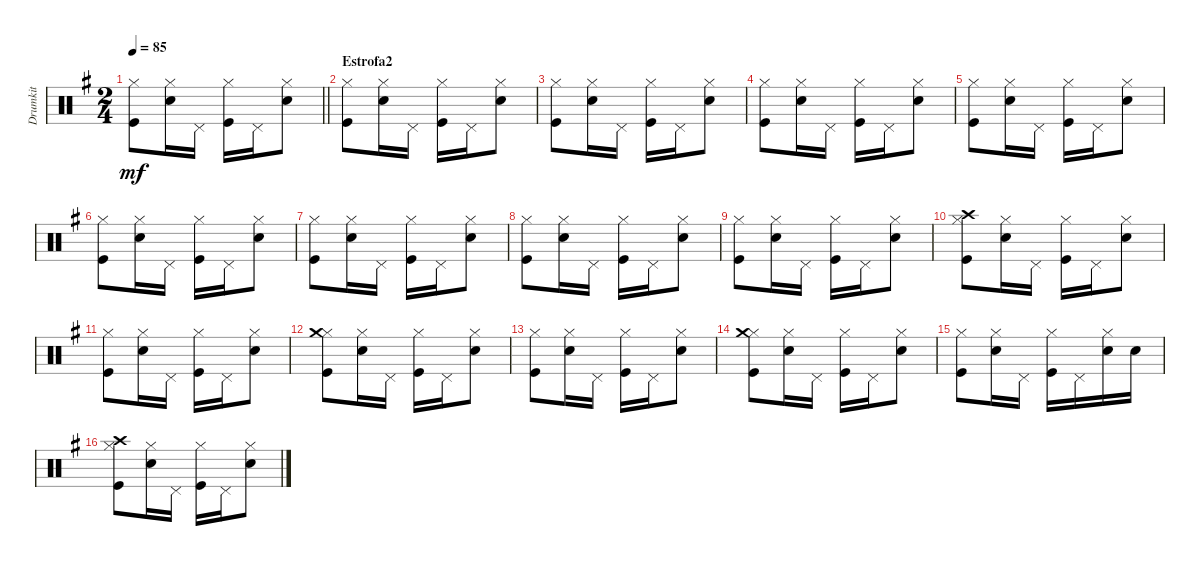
\track ("Drumkit" "Drumkit") {instrument percussion}
\staff {score}
\articulation defaults
\ts (2 4)
\tempo 85
\clef neutral
\barLineRight lightlight
\ks g
("Kick (hit)" "Hi-Hat (closed)").8{dy mf} ("Snare (hit) 2" "Hi-Hat (closed)").16 "Pedal Hi-Hat (hit)".16 ("Kick (hit)" "Hi-Hat (closed)").16 "Pedal Hi-Hat (hit)".16 ("Snare (hit) 2" "Hi-Hat (closed)").8 |
\section ("" "Estrofa2")
("Kick (hit)" "Hi-Hat (closed)").8 ("Snare (hit) 2" "Hi-Hat (closed)").16 "Pedal Hi-Hat (hit)".16 ("Kick (hit)" "Hi-Hat (closed)").16 "Pedal Hi-Hat (hit)".16 ("Snare (hit) 2" "Hi-Hat (closed)").8 |
("Kick (hit)" "Hi-Hat (closed)").8 ("Snare (hit) 2" "Hi-Hat (closed)").16 "Pedal Hi-Hat (hit)".16 ("Kick (hit)" "Hi-Hat (closed)").16 "Pedal Hi-Hat (hit)".16 ("Snare (hit) 2" "Hi-Hat (closed)").8 |
("Kick (hit)" "Hi-Hat (closed)").8 ("Snare (hit) 2" "Hi-Hat (closed)").16 "Pedal Hi-Hat (hit)".16 ("Kick (hit)" "Hi-Hat (closed)").16 "Pedal Hi-Hat (hit)".16 ("Snare (hit) 2" "Hi-Hat (closed)").8 |
("Kick (hit)" "Hi-Hat (closed)").8 ("Snare (hit) 2" "Hi-Hat (closed)").16 "Pedal Hi-Hat (hit)".16 ("Kick (hit)" "Hi-Hat (closed)").16 "Pedal Hi-Hat (hit)".16 ("Snare (hit) 2" "Hi-Hat (closed)").8 |
("Kick (hit)" "Hi-Hat (closed)").8 ("Snare (hit) 2" "Hi-Hat (closed)").16 "Pedal Hi-Hat (hit)".16 ("Kick (hit)" "Hi-Hat (closed)").16 "Pedal Hi-Hat (hit)".16 ("Snare (hit) 2" "Hi-Hat (closed)").8 |
("Kick (hit)" "Hi-Hat (closed)").8 ("Snare (hit) 2" "Hi-Hat (closed)").16 "Pedal Hi-Hat (hit)".16 ("Kick (hit)" "Hi-Hat (closed)").16 "Pedal Hi-Hat (hit)".16 ("Snare (hit) 2" "Hi-Hat (closed)").8 |
("Kick (hit)" "Hi-Hat (closed)").8 ("Snare (hit) 2" "Hi-Hat (closed)").16 "Pedal Hi-Hat (hit)".16 ("Kick (hit)" "Hi-Hat (closed)").16 "Pedal Hi-Hat (hit)".16 ("Snare (hit) 2" "Hi-Hat (closed)").8 |
("Kick (hit)" "Hi-Hat (closed)").8 ("Snare (hit) 2" "Hi-Hat (closed)").16 "Pedal Hi-Hat (hit)".16 ("Kick (hit)" "Hi-Hat (closed)").16 "Pedal Hi-Hat (hit)".16 ("Snare (hit) 2" "Hi-Hat (closed)").8 |
("Kick (hit)" "Hi-Hat (closed)" "Crash high (hit)").8 ("Snare (hit) 2" "Hi-Hat (closed)").16 "Pedal Hi-Hat (hit)".16 ("Kick (hit)" "Hi-Hat (closed)").16 "Pedal Hi-Hat (hit)".16 ("Snare (hit) 2" "Hi-Hat (closed)").8 |
("Kick (hit)" "Hi-Hat (closed)").8 ("Snare (hit) 2" "Hi-Hat (closed)").16 "Pedal Hi-Hat (hit)".16 ("Kick (hit)" "Hi-Hat (closed)").16 "Pedal Hi-Hat (hit)".16 ("Snare (hit) 2" "Hi-Hat (closed)").8 |
("Kick (hit)" "Hi-Hat (closed)" "Crash medium (hit)").8 ("Snare (hit) 2" "Hi-Hat (closed)").16 "Pedal Hi-Hat (hit)".16 ("Kick (hit)" "Hi-Hat (closed)").16 "Pedal Hi-Hat (hit)".16 ("Snare (hit) 2" "Hi-Hat (closed)").8 |
("Kick (hit)" "Hi-Hat (closed)").8 ("Snare (hit) 2" "Hi-Hat (closed)").16 "Pedal Hi-Hat (hit)".16 ("Kick (hit)" "Hi-Hat (closed)").16 "Pedal Hi-Hat (hit)".16 ("Snare (hit) 2" "Hi-Hat (closed)").8 |
("Kick (hit)" "Hi-Hat (closed)" "Crash medium (hit)").8 ("Snare (hit) 2" "Hi-Hat (closed)").16 "Pedal Hi-Hat (hit)".16 ("Kick (hit)" "Hi-Hat (closed)").16 "Pedal Hi-Hat (hit)".16 ("Snare (hit) 2" "Hi-Hat (closed)").8 |
("Kick (hit)" "Hi-Hat (closed)").8 ("Snare (hit) 2" "Hi-Hat (closed)").16 "Pedal Hi-Hat (hit)".16 ("Kick (hit)" "Hi-Hat (closed)").16 "Pedal Hi-Hat (hit)".16 ("Snare (hit) 2" "Hi-Hat (closed)").16 "Snare (hit) 2".16 |
("Kick (hit)" "Hi-Hat (closed)" "Crash high (hit)").8 ("Snare (hit) 2" "Hi-Hat (closed)").16 "Pedal Hi-Hat (hit)".16 ("Kick (hit)" "Hi-Hat (closed)").16 "Pedal Hi-Hat (hit)".16 ("Snare (hit) 2" "Hi-Hat (closed)").8
